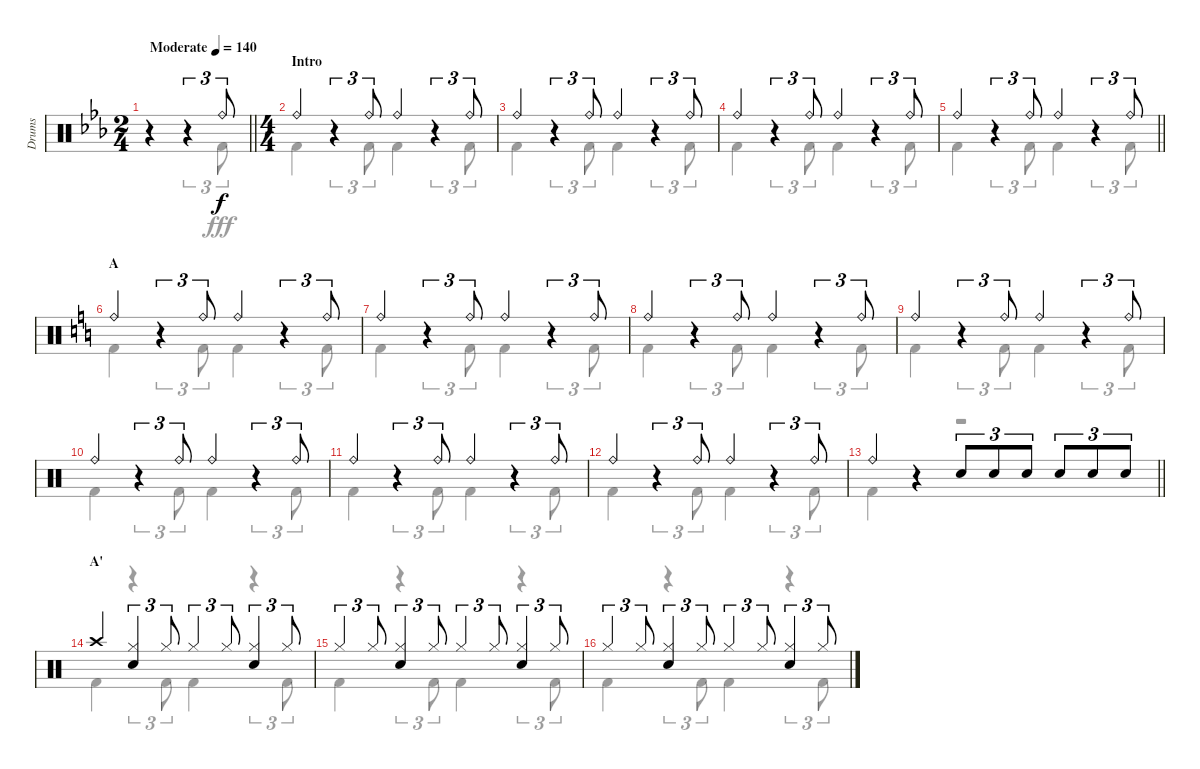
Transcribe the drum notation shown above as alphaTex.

\track ("Drums" "Drums") {instrument percussion}
\staff {score}
\articulation defaults
\voice
\ts (2 4)
\tempo (140 "Moderate")
\clef neutral
\barLineRight lightlight
\ks eb
r.4{dy f} r.4{tu (3 2)} "Ride (bell)".8{tu (3 2)} |
\ts (4 4)
\section ("" "Intro")
"Ride (bell)".4 r.4{tu (3 2)} "Ride (bell)".8{tu (3 2)} "Ride (bell)".4 r.4{tu (3 2)} "Ride (bell)".8{tu (3 2)} |
"Ride (bell)".4 r.4{tu (3 2)} "Ride (bell)".8{tu (3 2)} "Ride (bell)".4 r.4{tu (3 2)} "Ride (bell)".8{tu (3 2)} |
"Ride (bell)".4 r.4{tu (3 2)} "Ride (bell)".8{tu (3 2)} "Ride (bell)".4 r.4{tu (3 2)} "Ride (bell)".8{tu (3 2)} |
\barLineRight lightlight "Ride (bell)".4
r.4{tu (3 2)} "Ride (bell)".8{tu (3 2)} "Ride (bell)".4 r.4{tu (3 2)} "Ride (bell)".8{tu (3 2)} |
\section ("" "A")
\ks c "Ride (bell)".4
r.4{tu (3 2)} "Ride (bell)".8{tu (3 2)} "Ride (bell)".4 r.4{tu (3 2)} "Ride (bell)".8{tu (3 2)} |
"Ride (bell)".4 r.4{tu (3 2)} "Ride (bell)".8{tu (3 2)} "Ride (bell)".4 r.4{tu (3 2)} "Ride (bell)".8{tu (3 2)} |
"Ride (bell)".4 r.4{tu (3 2)} "Ride (bell)".8{tu (3 2)} "Ride (bell)".4 r.4{tu (3 2)} "Ride (bell)".8{tu (3 2)} |
"Ride (bell)".4 r.4{tu (3 2)} "Ride (bell)".8{tu (3 2)} "Ride (bell)".4 r.4{tu (3 2)} "Ride (bell)".8{tu (3 2)} |
"Ride (bell)".4 r.4{tu (3 2)} "Ride (bell)".8{tu (3 2)} "Ride (bell)".4 r.4{tu (3 2)} "Ride (bell)".8{tu (3 2)} |
"Ride (bell)".4 r.4{tu (3 2)} "Ride (bell)".8{tu (3 2)} "Ride (bell)".4 r.4{tu (3 2)} "Ride (bell)".8{tu (3 2)} |
"Ride (bell)".4 r.4{tu (3 2)} "Ride (bell)".8{tu (3 2)} "Ride (bell)".4 r.4{tu (3 2)} "Ride (bell)".8{tu (3 2)} |
\barLineRight lightlight "Ride (bell)".4
r.4 "Snare (hit) 2".8{tu (3 2)} "Snare (hit) 2".8{tu (3 2)} "Snare (hit) 2".8{tu (3 2)} "Snare (hit) 2".8{tu (3 2)} "Snare (hit) 2".8{tu (3 2)} "Snare (hit) 2".8{tu (3 2)} |
\section ("" "A'")
"Crash high (hit)".4 ("Hi-Hat (closed)" "Snare (hit) 2").4{tu (3 2)} "Hi-Hat (closed)".8{tu (3 2)} "Hi-Hat (closed)".4{tu (3 2)} "Hi-Hat (closed)".8{tu (3 2)} ("Hi-Hat (closed)" "Snare (hit) 2").4{tu (3 2)} "Hi-Hat (closed)".8{tu (3 2)} |
"Hi-Hat (closed)".4{tu (3 2)} "Hi-Hat (closed)".8{tu (3 2)} ("Hi-Hat (closed)" "Snare (hit) 2").4{tu (3 2)} "Hi-Hat (closed)".8{tu (3 2)} "Hi-Hat (closed)".4{tu (3 2)} "Hi-Hat (closed)".8{tu (3 2)} ("Hi-Hat (closed)" "Snare (hit) 2").4{tu (3 2)} "Hi-Hat (closed)".8{tu (3 2)} |
"Hi-Hat (closed)".4{tu (3 2)} "Hi-Hat (closed)".8{tu (3 2)} ("Hi-Hat (closed)" "Snare (hit) 2").4{tu (3 2)} "Hi-Hat (closed)".8{tu (3 2)} "Hi-Hat (closed)".4{tu (3 2)} "Hi-Hat (closed)".8{tu (3 2)} ("Hi-Hat (closed)" "Snare (hit) 2").4{tu (3 2)} "Hi-Hat (closed)".8{tu (3 2)}
\voice
\clef neutral
\ottava regular
\simile none
\barLineRight lightlight
\ks eb
r.4{dy fff} r.4{tu (3 2)} "Kick (hit) 2".8{tu (3 2)} |
"Kick (hit) 2".4 r.4{tu (3 2)} "Kick (hit) 2".8{tu (3 2)} "Kick (hit) 2".4 r.4{tu (3 2)} "Kick (hit) 2".8{tu (3 2)} |
"Kick (hit) 2".4 r.4{tu (3 2)} "Kick (hit) 2".8{tu (3 2)} "Kick (hit) 2".4 r.4{tu (3 2)} "Kick (hit) 2".8{tu (3 2)} |
"Kick (hit) 2".4 r.4{tu (3 2)} "Kick (hit) 2".8{tu (3 2)} "Kick (hit) 2".4 r.4{tu (3 2)} "Kick (hit) 2".8{tu (3 2)} |
\barLineRight lightlight "Kick (hit) 2".4
r.4{tu (3 2)} "Kick (hit) 2".8{tu (3 2)} "Kick (hit) 2".4 r.4{tu (3 2)} "Kick (hit) 2".8{tu (3 2)} |
\ks c "Kick (hit) 2".4
r.4{tu (3 2)} "Kick (hit) 2".8{tu (3 2)} "Kick (hit) 2".4 r.4{tu (3 2)} "Kick (hit) 2".8{tu (3 2)} |
"Kick (hit) 2".4 r.4{tu (3 2)} "Kick (hit) 2".8{tu (3 2)} "Kick (hit) 2".4 r.4{tu (3 2)} "Kick (hit) 2".8{tu (3 2)} |
"Kick (hit) 2".4 r.4{tu (3 2)} "Kick (hit) 2".8{tu (3 2)} "Kick (hit) 2".4 r.4{tu (3 2)} "Kick (hit) 2".8{tu (3 2)} |
"Kick (hit) 2".4 r.4{tu (3 2)} "Kick (hit) 2".8{tu (3 2)} "Kick (hit) 2".4 r.4{tu (3 2)} "Kick (hit) 2".8{tu (3 2)} |
"Kick (hit) 2".4 r.4{tu (3 2)} "Kick (hit) 2".8{tu (3 2)} "Kick (hit) 2".4 r.4{tu (3 2)} "Kick (hit) 2".8{tu (3 2)} |
"Kick (hit) 2".4 r.4{tu (3 2)} "Kick (hit) 2".8{tu (3 2)} "Kick (hit) 2".4 r.4{tu (3 2)} "Kick (hit) 2".8{tu (3 2)} |
"Kick (hit) 2".4 r.4{tu (3 2)} "Kick (hit) 2".8{tu (3 2)} "Kick (hit) 2".4 r.4{tu (3 2)} "Kick (hit) 2".8{tu (3 2)} |
\barLineRight lightlight "Kick (hit) 2".4
r.4 r.2 |
"Kick (hit) 2".4 r.4{tu (3 2)} "Kick (hit) 2".8{tu (3 2)} "Kick (hit) 2".4 r.4{tu (3 2)} "Kick (hit) 2".8{tu (3 2)} |
"Kick (hit) 2".4 r.4{tu (3 2)} "Kick (hit) 2".8{tu (3 2)} "Kick (hit) 2".4 r.4{tu (3 2)} "Kick (hit) 2".8{tu (3 2)} |
"Kick (hit) 2".4 r.4{tu (3 2)} "Kick (hit) 2".8{tu (3 2)} "Kick (hit) 2".4 r.4{tu (3 2)} "Kick (hit) 2".8{tu (3 2)}
